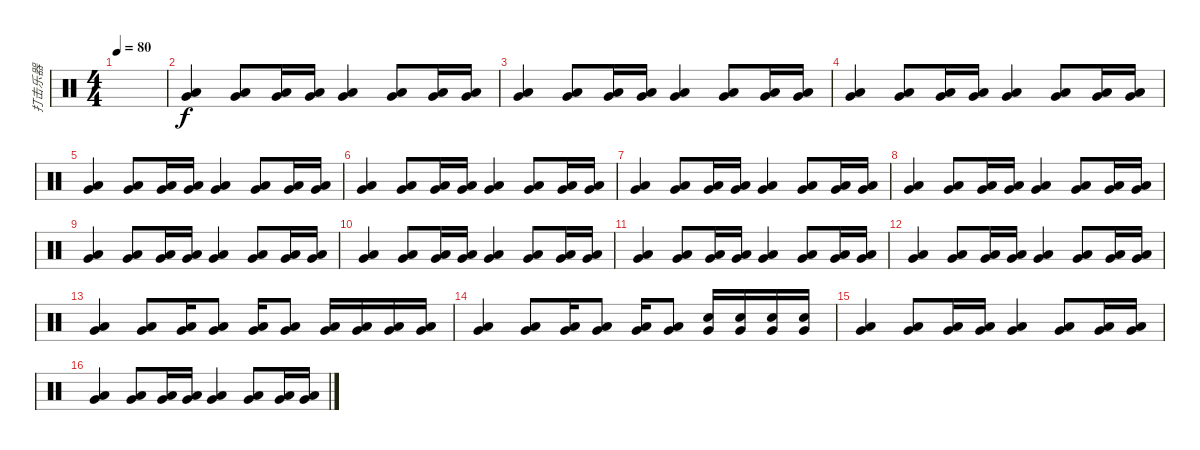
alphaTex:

\track ("打击乐器" "打击乐器") {instrument percussion}
\staff {score}
\articulation defaults
\ts (4 4)
\tempo 80
\clef neutral
\ks c
|
("Very Low Tom (hit)" "Low Floor Tom (hit)").4 ("Very Low Tom (hit)" "Low Floor Tom (hit)").8 ("Very Low Tom (hit)" "Low Floor Tom (hit)").16 ("Very Low Tom (hit)" "Low Floor Tom (hit)").16 ("Very Low Tom (hit)" "Low Floor Tom (hit)").4 ("Very Low Tom (hit)" "Low Floor Tom (hit)").8 ("Very Low Tom (hit)" "Low Floor Tom (hit)").16 ("Very Low Tom (hit)" "Low Floor Tom (hit)").16 |
("Very Low Tom (hit)" "Low Floor Tom (hit)").4 ("Very Low Tom (hit)" "Low Floor Tom (hit)").8 ("Very Low Tom (hit)" "Low Floor Tom (hit)").16 ("Very Low Tom (hit)" "Low Floor Tom (hit)").16 ("Very Low Tom (hit)" "Low Floor Tom (hit)").4 ("Very Low Tom (hit)" "Low Floor Tom (hit)").8 ("Very Low Tom (hit)" "Low Floor Tom (hit)").16 ("Very Low Tom (hit)" "Low Floor Tom (hit)").16 |
("Very Low Tom (hit)" "Low Floor Tom (hit)").4 ("Very Low Tom (hit)" "Low Floor Tom (hit)").8 ("Very Low Tom (hit)" "Low Floor Tom (hit)").16 ("Very Low Tom (hit)" "Low Floor Tom (hit)").16 ("Very Low Tom (hit)" "Low Floor Tom (hit)").4 ("Very Low Tom (hit)" "Low Floor Tom (hit)").8 ("Very Low Tom (hit)" "Low Floor Tom (hit)").16 ("Very Low Tom (hit)" "Low Floor Tom (hit)").16 |
("Very Low Tom (hit)" "Low Floor Tom (hit)").4 ("Very Low Tom (hit)" "Low Floor Tom (hit)").8 ("Very Low Tom (hit)" "Low Floor Tom (hit)").16 ("Very Low Tom (hit)" "Low Floor Tom (hit)").16 ("Very Low Tom (hit)" "Low Floor Tom (hit)").4 ("Very Low Tom (hit)" "Low Floor Tom (hit)").8 ("Very Low Tom (hit)" "Low Floor Tom (hit)").16 ("Very Low Tom (hit)" "Low Floor Tom (hit)").16 |
("Very Low Tom (hit)" "Low Floor Tom (hit)").4 ("Very Low Tom (hit)" "Low Floor Tom (hit)").8 ("Very Low Tom (hit)" "Low Floor Tom (hit)").16 ("Very Low Tom (hit)" "Low Floor Tom (hit)").16 ("Very Low Tom (hit)" "Low Floor Tom (hit)").4 ("Very Low Tom (hit)" "Low Floor Tom (hit)").8 ("Very Low Tom (hit)" "Low Floor Tom (hit)").16 ("Very Low Tom (hit)" "Low Floor Tom (hit)").16 |
("Very Low Tom (hit)" "Low Floor Tom (hit)").4 ("Very Low Tom (hit)" "Low Floor Tom (hit)").8 ("Very Low Tom (hit)" "Low Floor Tom (hit)").16 ("Very Low Tom (hit)" "Low Floor Tom (hit)").16 ("Very Low Tom (hit)" "Low Floor Tom (hit)").4 ("Very Low Tom (hit)" "Low Floor Tom (hit)").8 ("Very Low Tom (hit)" "Low Floor Tom (hit)").16 ("Very Low Tom (hit)" "Low Floor Tom (hit)").16 |
("Very Low Tom (hit)" "Low Floor Tom (hit)").4 ("Very Low Tom (hit)" "Low Floor Tom (hit)").8 ("Very Low Tom (hit)" "Low Floor Tom (hit)").16 ("Very Low Tom (hit)" "Low Floor Tom (hit)").16 ("Very Low Tom (hit)" "Low Floor Tom (hit)").4 ("Very Low Tom (hit)" "Low Floor Tom (hit)").8 ("Very Low Tom (hit)" "Low Floor Tom (hit)").16 ("Very Low Tom (hit)" "Low Floor Tom (hit)").16 |
("Very Low Tom (hit)" "Low Floor Tom (hit)").4 ("Very Low Tom (hit)" "Low Floor Tom (hit)").8 ("Very Low Tom (hit)" "Low Floor Tom (hit)").16 ("Very Low Tom (hit)" "Low Floor Tom (hit)").16 ("Very Low Tom (hit)" "Low Floor Tom (hit)").4 ("Very Low Tom (hit)" "Low Floor Tom (hit)").8 ("Very Low Tom (hit)" "Low Floor Tom (hit)").16 ("Very Low Tom (hit)" "Low Floor Tom (hit)").16 |
("Very Low Tom (hit)" "Low Floor Tom (hit)").4 ("Very Low Tom (hit)" "Low Floor Tom (hit)").8 ("Very Low Tom (hit)" "Low Floor Tom (hit)").16 ("Very Low Tom (hit)" "Low Floor Tom (hit)").16 ("Very Low Tom (hit)" "Low Floor Tom (hit)").4 ("Very Low Tom (hit)" "Low Floor Tom (hit)").8 ("Very Low Tom (hit)" "Low Floor Tom (hit)").16 ("Very Low Tom (hit)" "Low Floor Tom (hit)").16 |
("Very Low Tom (hit)" "Low Floor Tom (hit)").4 ("Very Low Tom (hit)" "Low Floor Tom (hit)").8 ("Very Low Tom (hit)" "Low Floor Tom (hit)").16 ("Very Low Tom (hit)" "Low Floor Tom (hit)").16 ("Very Low Tom (hit)" "Low Floor Tom (hit)").4 ("Very Low Tom (hit)" "Low Floor Tom (hit)").8 ("Very Low Tom (hit)" "Low Floor Tom (hit)").16 ("Very Low Tom (hit)" "Low Floor Tom (hit)").16 |
("Very Low Tom (hit)" "Low Floor Tom (hit)").4 ("Very Low Tom (hit)" "Low Floor Tom (hit)").8 ("Very Low Tom (hit)" "Low Floor Tom (hit)").16 ("Very Low Tom (hit)" "Low Floor Tom (hit)").16 ("Very Low Tom (hit)" "Low Floor Tom (hit)").4 ("Very Low Tom (hit)" "Low Floor Tom (hit)").8 ("Very Low Tom (hit)" "Low Floor Tom (hit)").16 ("Very Low Tom (hit)" "Low Floor Tom (hit)").16 |
("Very Low Tom (hit)" "Low Floor Tom (hit)").4 ("Very Low Tom (hit)" "Low Floor Tom (hit)").8 ("Very Low Tom (hit)" "Low Floor Tom (hit)").16 ("Very Low Tom (hit)" "Low Floor Tom (hit)").8 ("Very Low Tom (hit)" "Low Floor Tom (hit)").16 ("Very Low Tom (hit)" "Low Floor Tom (hit)").8 ("Very Low Tom (hit)" "Low Floor Tom (hit)").16 ("Very Low Tom (hit)" "Low Floor Tom (hit)").16 ("Very Low Tom (hit)" "Low Floor Tom (hit)").16 ("Very Low Tom (hit)" "Low Floor Tom (hit)").16 |
("Very Low Tom (hit)" "Low Floor Tom (hit)").4 ("Very Low Tom (hit)" "Low Floor Tom (hit)").8 ("Very Low Tom (hit)" "Low Floor Tom (hit)").16 ("Very Low Tom (hit)" "Low Floor Tom (hit)").8 ("Very Low Tom (hit)" "Low Floor Tom (hit)").16 ("Low Floor Tom (hit)" "Very Low Tom (hit)").8 ("Electric Snare (hit)" "Very Low Tom (hit)").16 ("Very Low Tom (hit)" "Electric Snare (hit)").16 ("Very Low Tom (hit)" "Electric Snare (hit)").16 ("Electric Snare (hit)" "Very Low Tom (hit)").16 |
("Very Low Tom (hit)" "Low Floor Tom (hit)").4 ("Very Low Tom (hit)" "Low Floor Tom (hit)").8 ("Very Low Tom (hit)" "Low Floor Tom (hit)").16 ("Very Low Tom (hit)" "Low Floor Tom (hit)").16 ("Very Low Tom (hit)" "Low Floor Tom (hit)").4 ("Very Low Tom (hit)" "Low Floor Tom (hit)").8 ("Very Low Tom (hit)" "Low Floor Tom (hit)").16 ("Very Low Tom (hit)" "Low Floor Tom (hit)").16 |
("Very Low Tom (hit)" "Low Floor Tom (hit)").4 ("Very Low Tom (hit)" "Low Floor Tom (hit)").8 ("Very Low Tom (hit)" "Low Floor Tom (hit)").16 ("Very Low Tom (hit)" "Low Floor Tom (hit)").16 ("Very Low Tom (hit)" "Low Floor Tom (hit)").4 ("Very Low Tom (hit)" "Low Floor Tom (hit)").8 ("Very Low Tom (hit)" "Low Floor Tom (hit)").16 ("Very Low Tom (hit)" "Low Floor Tom (hit)").16
